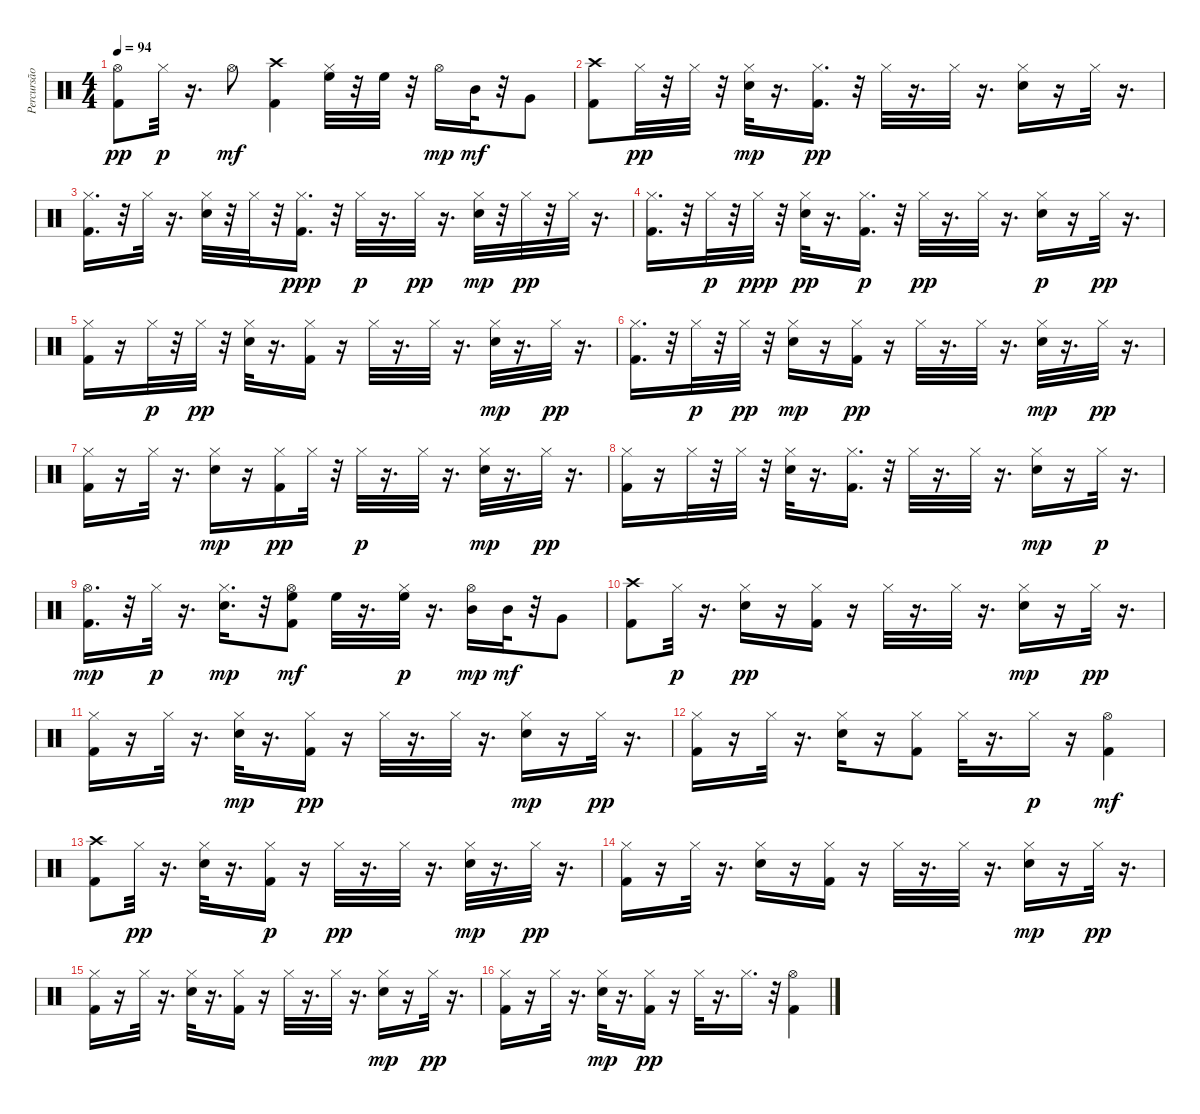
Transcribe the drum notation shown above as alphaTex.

\track ("Percursão" "Percursão") {instrument percussion}
\staff {score}
\articulation defaults
\ts (4 4)
\tempo 94
\clef neutral
\ks c
("Hi-Hat (open)" "Kick (hit) 2").8{dy pp} "Hi-Hat (closed)".32{dy p} r.16{d} "Hi-Hat (open)".8{dy mf} ("Kick (hit) 2" "Crash high (hit)").4 ("Hi-Hat (closed)" "High Floor Tom (hit)").32 r.32 "High Floor Tom (hit)".32 r.32 "Hi-Hat (open)".16{dy mp} "Mid Tom (hit)".32{dy mf} r.32 "Very Low Tom (hit)".8 |
("Kick (hit) 2" "Crash high (hit)").8 "Hi-Hat (closed)".32{dy pp} r.32 "Hi-Hat (closed)".32 r.32 ("Hi-Hat (closed)" "Snare (hit) 2").32{dy mp} r.16{d} ("Kick (hit) 2" "Hi-Hat (closed)").16{d dy pp} r.32 "Hi-Hat (closed)".32 r.16{d} "Hi-Hat (closed)".32 r.16{d} ("Snare (hit) 2" "Hi-Hat (closed)").16 r.16 "Hi-Hat (closed)".32 r.16{d} |
("Kick (hit) 2" "Hi-Hat (closed)").16{d} r.32 "Hi-Hat (closed)".32 r.16{d} ("Snare (hit) 2" "Hi-Hat (closed)").32 r.32 "Hi-Hat (closed)".32 r.32 ("Kick (hit) 2" "Hi-Hat (closed)").16{d dy ppp} r.32 "Hi-Hat (closed)".32{dy p} r.16{d} "Hi-Hat (closed)".32{dy pp} r.16{d} ("Hi-Hat (closed)" "Snare (hit) 2").32{dy mp} r.32 "Hi-Hat (closed)".32{dy pp} r.32 "Hi-Hat (closed)".32 r.16{d} |
("Kick (hit) 2" "Hi-Hat (closed)").16{d} r.32 "Hi-Hat (closed)".32{dy p} r.32 "Hi-Hat (closed)".32{dy ppp} r.32 ("Snare (hit) 2" "Hi-Hat (closed)").32{dy pp} r.16{d} ("Kick (hit) 2" "Hi-Hat (closed)").16{d dy p} r.32 "Hi-Hat (closed)".32{dy pp} r.16{d} "Hi-Hat (closed)".32 r.16{d} ("Snare (hit) 2" "Hi-Hat (closed)").16{dy p} r.16 "Hi-Hat (closed)".32{dy pp} r.16{d} |
("Kick (hit) 2" "Hi-Hat (closed)").16 r.16 "Hi-Hat (closed)".32{dy p} r.32 "Hi-Hat (closed)".32{dy pp} r.32 ("Snare (hit) 2" "Hi-Hat (closed)").32 r.16{d} ("Hi-Hat (closed)" "Kick (hit) 2").16 r.16 "Hi-Hat (closed)".32 r.16{d} "Hi-Hat (closed)".32 r.16{d} ("Hi-Hat (closed)" "Snare (hit) 2").32{dy mp} r.16{d} "Hi-Hat (closed)".32{dy pp} r.16{d} |
("Kick (hit) 2" "Hi-Hat (closed)").16{d} r.32 "Hi-Hat (closed)".32{dy p} r.32 "Hi-Hat (closed)".32{dy pp} r.32 ("Hi-Hat (closed)" "Snare (hit) 2").16{dy mp} r.16 ("Hi-Hat (closed)" "Kick (hit) 2").16{dy pp} r.16 "Hi-Hat (closed)".32 r.16{d} "Hi-Hat (closed)".32 r.16{d} ("Hi-Hat (closed)" "Snare (hit) 2").32{dy mp} r.16{d} "Hi-Hat (closed)".32{dy pp} r.16{d} |
("Hi-Hat (closed)" "Kick (hit) 2").16 r.16 "Hi-Hat (closed)".32 r.16{d} ("Hi-Hat (closed)" "Snare (hit) 2").16{dy mp} r.16 ("Kick (hit) 2" "Hi-Hat (closed)").16{dy pp} "Hi-Hat (closed)".32 r.32 "Hi-Hat (closed)".32{dy p} r.16{d} "Hi-Hat (closed)".32 r.16{d} ("Hi-Hat (closed)" "Snare (hit) 2").32{dy mp} r.16{d} "Hi-Hat (closed)".32{dy pp} r.16{d} |
("Kick (hit) 2" "Hi-Hat (closed)").16 r.16 "Hi-Hat (closed)".32 r.32 "Hi-Hat (closed)".32 r.32 ("Snare (hit) 2" "Hi-Hat (closed)").32 r.16{d} ("Kick (hit) 2" "Hi-Hat (closed)").16{d} r.32 "Hi-Hat (closed)".32 r.16{d} "Hi-Hat (closed)".32 r.16{d} ("Hi-Hat (closed)" "Snare (hit) 2").16{dy mp} r.16 "Hi-Hat (closed)".32{dy p} r.16{d} |
("Kick (hit) 2" "Hi-Hat (open)").16{d dy mp} r.32 "Hi-Hat (closed)".32{dy p} r.16{d} ("Hi-Hat (closed)" "Snare (hit) 2").16{d dy mp} r.32 ("Kick (hit) 2" "Hi-Hat (open)" "High Floor Tom (hit)").8{dy mf} "High Floor Tom (hit)".32 r.16{d} ("High Floor Tom (hit)" "Hi-Hat (closed)").32{dy p} r.16{d} ("Mid Tom (hit)" "Hi-Hat (open)").16{dy mp} "Mid Tom (hit)".32{dy mf} r.32 "Very Low Tom (hit)".8 |
("Kick (hit) 2" "Crash high (hit)").8 "Hi-Hat (closed)".32{dy p} r.16{d} ("Snare (hit) 2" "Hi-Hat (closed)").16{dy pp} r.16 ("Kick (hit) 2" "Hi-Hat (closed)").16 r.16 "Hi-Hat (closed)".32 r.16{d} "Hi-Hat (closed)".32 r.16{d} ("Hi-Hat (closed)" "Snare (hit) 2").16{dy mp} r.16 "Hi-Hat (closed)".32{dy pp} r.16{d} |
("Kick (hit) 2" "Hi-Hat (closed)").16 r.16 "Hi-Hat (closed)".32 r.16{d} ("Hi-Hat (closed)" "Snare (hit) 2").32{dy mp} r.16{d} ("Hi-Hat (closed)" "Kick (hit) 2").16{dy pp} r.16 "Hi-Hat (closed)".32 r.16{d} "Hi-Hat (closed)".32 r.16{d} ("Hi-Hat (closed)" "Snare (hit) 2").16{dy mp} r.16 "Hi-Hat (closed)".32{dy pp} r.16{d} |
("Kick (hit) 2" "Hi-Hat (closed)").16 r.16 "Hi-Hat (closed)".32 r.16{d} ("Snare (hit) 2" "Hi-Hat (closed)").16 r.16 ("Kick (hit) 2" "Hi-Hat (closed)").8 "Hi-Hat (closed)".32 r.16{d} "Hi-Hat (closed)".16{dy p} r.16 ("Kick (hit) 2" "Hi-Hat (open)").4{dy mf} |
("Kick (hit) 2" "Crash high (hit)").8 "Hi-Hat (closed)".32{dy pp} r.16{d} ("Snare (hit) 2" "Hi-Hat (closed)").32 r.16{d} ("Kick (hit) 2" "Hi-Hat (closed)").16{dy p} r.16 "Hi-Hat (closed)".32{dy pp} r.16{d} "Hi-Hat (closed)".32 r.16{d} ("Hi-Hat (closed)" "Snare (hit) 2").32{dy mp} r.16{d} "Hi-Hat (closed)".32{dy pp} r.16{d} |
("Hi-Hat (closed)" "Kick (hit) 2").16 r.16 "Hi-Hat (closed)".32 r.16{d} ("Snare (hit) 2" "Hi-Hat (closed)").16 r.16 ("Kick (hit) 2" "Hi-Hat (closed)").16 r.16 "Hi-Hat (closed)".32 r.16{d} "Hi-Hat (closed)".32 r.16{d} ("Hi-Hat (closed)" "Snare (hit) 2").16{dy mp} r.16 "Hi-Hat (closed)".32{dy pp} r.16{d} |
("Kick (hit) 2" "Hi-Hat (closed)").16 r.16 "Hi-Hat (closed)".32 r.16{d} ("Snare (hit) 2" "Hi-Hat (closed)").32 r.16{d} ("Kick (hit) 2" "Hi-Hat (closed)").16 r.16 "Hi-Hat (closed)".32 r.16{d} "Hi-Hat (closed)".32 r.16{d} ("Hi-Hat (closed)" "Snare (hit) 2").16{dy mp} r.16 "Hi-Hat (closed)".32{dy pp} r.16{d} |
("Hi-Hat (closed)" "Kick (hit) 2").16 r.16 "Hi-Hat (closed)".32 r.16{d} ("Hi-Hat (closed)" "Snare (hit) 2").32{dy mp} r.16{d} ("Kick (hit) 2" "Hi-Hat (closed)").16{dy pp} r.16 "Hi-Hat (closed)".32 r.16{d} "Hi-Hat (closed)".16{d} r.32 ("Hi-Hat (open)" "Kick (hit) 2").4
